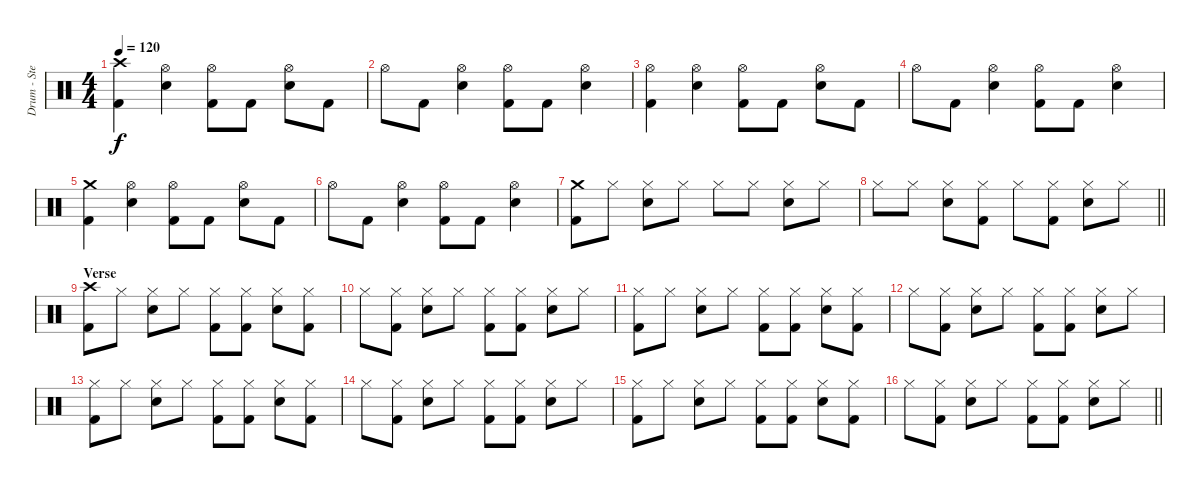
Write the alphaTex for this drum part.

\track ("Drum - Stevie Morley Item" "Drum - Ste") {instrument percussion}
\staff {score}
\articulation defaults
\ts (4 4)
\tempo 120
\clef neutral
\ks c
("Crash high (hit)" "Kick (hit) 2").4{dy f} ("Hi-Hat (open)" "Snare (hit) 2").4 ("Hi-Hat (open)" "Kick (hit) 2").8 "Kick (hit) 2".8 ("Hi-Hat (open)" "Snare (hit) 2").8 "Kick (hit) 2".8 |
"Hi-Hat (open)".8 "Kick (hit) 2".8 ("Hi-Hat (open)" "Snare (hit) 2").4 ("Hi-Hat (open)" "Kick (hit) 2").8 "Kick (hit) 2".8 ("Hi-Hat (open)" "Snare (hit) 2").4 |
("Hi-Hat (open)" "Kick (hit) 2").4 ("Hi-Hat (open)" "Snare (hit) 2").4 ("Hi-Hat (open)" "Kick (hit) 2").8 "Kick (hit) 2".8 ("Hi-Hat (open)" "Snare (hit) 2").8 "Kick (hit) 2".8 |
"Hi-Hat (open)".8 "Kick (hit) 2".8 ("Hi-Hat (open)" "Snare (hit) 2").4 ("Hi-Hat (open)" "Kick (hit) 2").8 "Kick (hit) 2".8 ("Hi-Hat (open)" "Snare (hit) 2").4 |
("Crash medium (hit)" "Kick (hit) 2").4 ("Hi-Hat (open)" "Snare (hit) 2").4 ("Hi-Hat (open)" "Kick (hit) 2").8 "Kick (hit) 2".8 ("Hi-Hat (open)" "Snare (hit) 2").8 "Kick (hit) 2".8 |
"Hi-Hat (open)".8 "Kick (hit) 2".8 ("Hi-Hat (open)" "Snare (hit) 2").4 ("Hi-Hat (open)" "Kick (hit) 2").8 "Kick (hit) 2".8 ("Hi-Hat (open)" "Snare (hit) 2").4 |
("Crash medium (hit)" "Kick (hit) 2").8 "Hi-Hat (closed)".8 ("Hi-Hat (closed)" "Snare (hit) 2").8 "Hi-Hat (closed)".8 "Hi-Hat (closed)".8 "Hi-Hat (closed)".8 ("Hi-Hat (closed)" "Snare (hit) 2").8 "Hi-Hat (closed)".8 |
\barLineRight lightlight "Hi-Hat (closed)".8 "Hi-Hat (closed)".8
("Hi-Hat (closed)" "Snare (hit) 2").8 ("Hi-Hat (closed)" "Kick (hit) 2").8 "Hi-Hat (closed)".8 ("Hi-Hat (closed)" "Kick (hit) 2").8 ("Hi-Hat (closed)" "Snare (hit) 2").8 "Hi-Hat (closed)".8 |
\section ("" "Verse")
("Crash high (hit)" "Kick (hit) 2").8 "Hi-Hat (closed)".8 ("Hi-Hat (closed)" "Snare (hit) 2").8 "Hi-Hat (closed)".8 ("Hi-Hat (closed)" "Kick (hit) 2").8 ("Hi-Hat (closed)" "Kick (hit) 2").8 ("Hi-Hat (closed)" "Snare (hit) 2").8 ("Hi-Hat (closed)" "Kick (hit) 2").8 |
"Hi-Hat (closed)".8 ("Hi-Hat (closed)" "Kick (hit) 2").8 ("Hi-Hat (closed)" "Snare (hit) 2").8 "Hi-Hat (closed)".8 ("Hi-Hat (closed)" "Kick (hit) 2").8 ("Hi-Hat (closed)" "Kick (hit) 2").8 ("Hi-Hat (closed)" "Snare (hit) 2").8 "Hi-Hat (closed)".8 |
("Hi-Hat (closed)" "Kick (hit) 2").8 "Hi-Hat (closed)".8 ("Hi-Hat (closed)" "Snare (hit) 2").8 "Hi-Hat (closed)".8 ("Hi-Hat (closed)" "Kick (hit) 2").8 ("Hi-Hat (closed)" "Kick (hit) 2").8 ("Hi-Hat (closed)" "Snare (hit) 2").8 ("Hi-Hat (closed)" "Kick (hit) 2").8 |
"Hi-Hat (closed)".8 ("Hi-Hat (closed)" "Kick (hit) 2").8 ("Hi-Hat (closed)" "Snare (hit) 2").8 "Hi-Hat (closed)".8 ("Hi-Hat (closed)" "Kick (hit) 2").8 ("Hi-Hat (closed)" "Kick (hit) 2").8 ("Hi-Hat (closed)" "Snare (hit) 2").8 "Hi-Hat (closed)".8 |
("Hi-Hat (closed)" "Kick (hit) 2").8 "Hi-Hat (closed)".8 ("Hi-Hat (closed)" "Snare (hit) 2").8 "Hi-Hat (closed)".8 ("Hi-Hat (closed)" "Kick (hit) 2").8 ("Hi-Hat (closed)" "Kick (hit) 2").8 ("Hi-Hat (closed)" "Snare (hit) 2").8 ("Hi-Hat (closed)" "Kick (hit) 2").8 |
"Hi-Hat (closed)".8 ("Hi-Hat (closed)" "Kick (hit) 2").8 ("Hi-Hat (closed)" "Snare (hit) 2").8 "Hi-Hat (closed)".8 ("Hi-Hat (closed)" "Kick (hit) 2").8 ("Hi-Hat (closed)" "Kick (hit) 2").8 ("Hi-Hat (closed)" "Snare (hit) 2").8 "Hi-Hat (closed)".8 |
("Hi-Hat (closed)" "Kick (hit) 2").8 "Hi-Hat (closed)".8 ("Hi-Hat (closed)" "Snare (hit) 2").8 "Hi-Hat (closed)".8 ("Hi-Hat (closed)" "Kick (hit) 2").8 ("Hi-Hat (closed)" "Kick (hit) 2").8 ("Hi-Hat (closed)" "Snare (hit) 2").8 ("Hi-Hat (closed)" "Kick (hit) 2").8 |
\barLineRight lightlight "Hi-Hat (closed)".8
("Hi-Hat (closed)" "Kick (hit) 2").8 ("Hi-Hat (closed)" "Snare (hit) 2").8 "Hi-Hat (closed)".8 ("Hi-Hat (closed)" "Kick (hit) 2").8 ("Hi-Hat (closed)" "Kick (hit) 2").8 ("Hi-Hat (closed)" "Snare (hit) 2").8 "Hi-Hat (closed)".8
